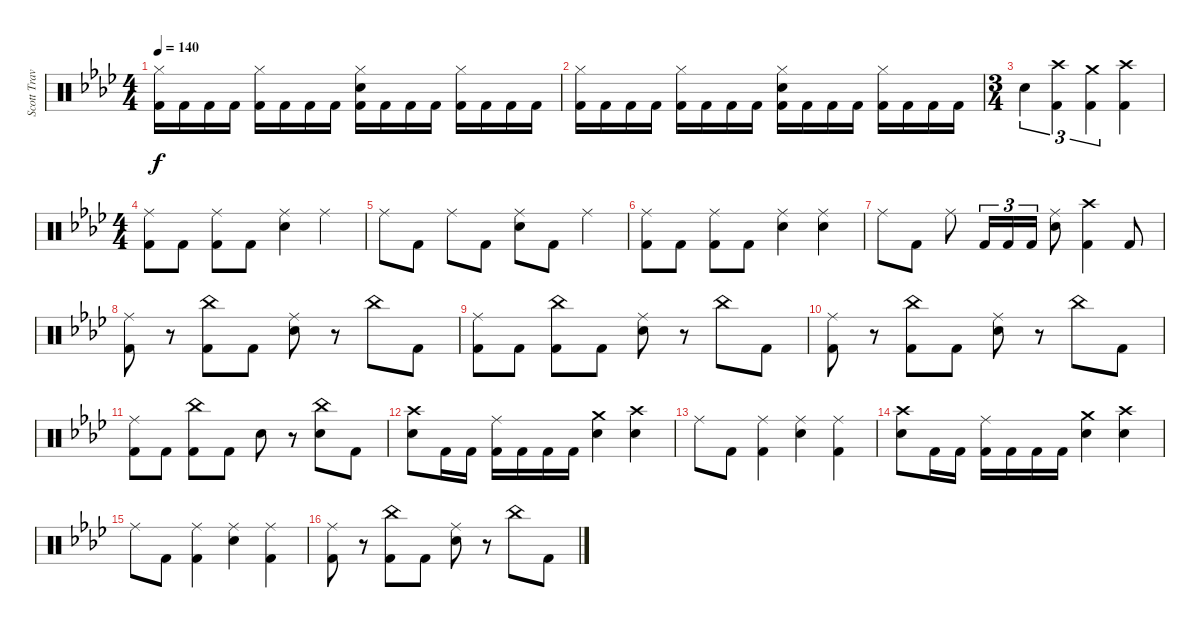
\track ("Scott Travis" "Scott Trav") {instrument percussion}
\staff {score}
\articulation defaults
\ts (4 4)
\tempo 140
\clef neutral
\ks fminor
("Hi-Hat (closed)" "Kick (hit) 2").16{dy f} "Kick (hit) 2".16 "Kick (hit) 2".16 "Kick (hit) 2".16 ("Hi-Hat (closed)" "Kick (hit) 2").16 "Kick (hit) 2".16 "Kick (hit) 2".16 "Kick (hit) 2".16 ("Hi-Hat (closed)" "Electric Snare (hit)" "Kick (hit) 2").16 "Kick (hit) 2".16 "Kick (hit) 2".16 "Kick (hit) 2".16 ("Hi-Hat (closed)" "Kick (hit) 2").16 "Kick (hit) 2".16 "Kick (hit) 2".16 "Kick (hit) 2".16 |
("Hi-Hat (closed)" "Kick (hit) 2").16 "Kick (hit) 2".16 "Kick (hit) 2".16 "Kick (hit) 2".16 ("Hi-Hat (closed)" "Kick (hit) 2").16 "Kick (hit) 2".16 "Kick (hit) 2".16 "Kick (hit) 2".16 ("Hi-Hat (closed)" "Electric Snare (hit)" "Kick (hit) 2").16 "Kick (hit) 2".16 "Kick (hit) 2".16 "Kick (hit) 2".16 ("Hi-Hat (closed)" "Kick (hit) 2").16 "Kick (hit) 2".16 "Kick (hit) 2".16 "Kick (hit) 2".16 |
\ts (3 4)
"Electric Snare (hit)".4{tu (3 2)} ("Crash high (hit)" "Kick (hit) 2").4{tu (3 2)} ("Crash medium (hit)" "Kick (hit) 2").4{tu (3 2)} ("Crash high (hit)" "Kick (hit) 2").4 |
\ts (4 4)
("Ride (middle)" "Kick (hit) 2").8 "Kick (hit) 2".8 ("Ride (middle)" "Kick (hit) 2").8 "Kick (hit) 2".8 ("Ride (middle)" "Electric Snare (hit)").4 "Ride (middle)".4 |
"Ride (middle)".8 "Kick (hit) 2".8 "Ride (middle)".8 "Kick (hit) 2".8 ("Ride (middle)" "Electric Snare (hit)").8 "Kick (hit) 2".8 "Ride (middle)".4 |
("Ride (middle)" "Kick (hit) 2").8 "Kick (hit) 2".8 ("Ride (middle)" "Kick (hit) 2").8 "Kick (hit) 2".8 ("Ride (middle)" "Electric Snare (hit)").4 ("Ride (middle)" "Electric Snare (hit)").4 |
"Ride (middle)".8 "Kick (hit) 2".8 "Ride (middle)".8 "Kick (hit) 2".16{tu (3 2)} "Kick (hit) 2".16{tu (3 2)} "Kick (hit) 2".16{tu (3 2)} ("Ride (middle)" "Electric Snare (hit)").8 ("Crash high (hit)" "Kick (hit) 2").4 "Kick (hit) 2".8 |
("Ride (middle)" "Kick (hit) 2").8 r.8 ("China (hit)" "Kick (hit) 2").8 "Kick (hit) 2".8 ("Ride (middle)" "Electric Snare (hit)").8 r.8 "China (hit)".8 "Kick (hit) 2".8 |
("Ride (middle)" "Kick (hit) 2").8 "Kick (hit) 2".8 ("China (hit)" "Kick (hit) 2").8 "Kick (hit) 2".8 ("Ride (middle)" "Electric Snare (hit)").8 r.8 "China (hit)".8 "Kick (hit) 2".8 |
("Ride (middle)" "Kick (hit) 2").8 r.8 ("China (hit)" "Kick (hit) 2").8 "Kick (hit) 2".8 ("Ride (middle)" "Electric Snare (hit)").8 r.8 "China (hit)".8 "Kick (hit) 2".8 |
("Ride (middle)" "Kick (hit) 2").8 "Kick (hit) 2".8 ("China (hit)" "Kick (hit) 2").8 "Kick (hit) 2".8 "Electric Snare (hit)".8 r.8 ("China (hit)" "Electric Snare (hit)").8 "Kick (hit) 2".8 |
("Crash high (hit)" "Electric Snare (hit)").8 "Kick (hit) 2".16 "Kick (hit) 2".16 ("Ride (middle)" "Kick (hit) 2").16 "Kick (hit) 2".16 "Kick (hit) 2".16 "Kick (hit) 2".16 ("Crash medium (hit)" "Electric Snare (hit)").4 ("Crash high (hit)" "Electric Snare (hit)").4 |
"Ride (middle)".8 "Kick (hit) 2".8 ("Ride (middle)" "Kick (hit) 2").4 ("Ride (middle)" "Electric Snare (hit)").4 ("Ride (middle)" "Kick (hit) 2").4 |
("Crash high (hit)" "Electric Snare (hit)").8 "Kick (hit) 2".16 "Kick (hit) 2".16 ("Ride (middle)" "Kick (hit) 2").16 "Kick (hit) 2".16 "Kick (hit) 2".16 "Kick (hit) 2".16 ("Crash medium (hit)" "Electric Snare (hit)").4 ("Crash high (hit)" "Electric Snare (hit)").4 |
"Ride (middle)".8 "Kick (hit) 2".8 ("Ride (middle)" "Kick (hit) 2").4 ("Ride (middle)" "Electric Snare (hit)").4 ("Ride (middle)" "Kick (hit) 2").4 |
("Ride (middle)" "Kick (hit) 2").8 r.8 ("China (hit)" "Kick (hit) 2").8 "Kick (hit) 2".8 ("Ride (middle)" "Electric Snare (hit)").8 r.8 "China (hit)".8 "Kick (hit) 2".8
